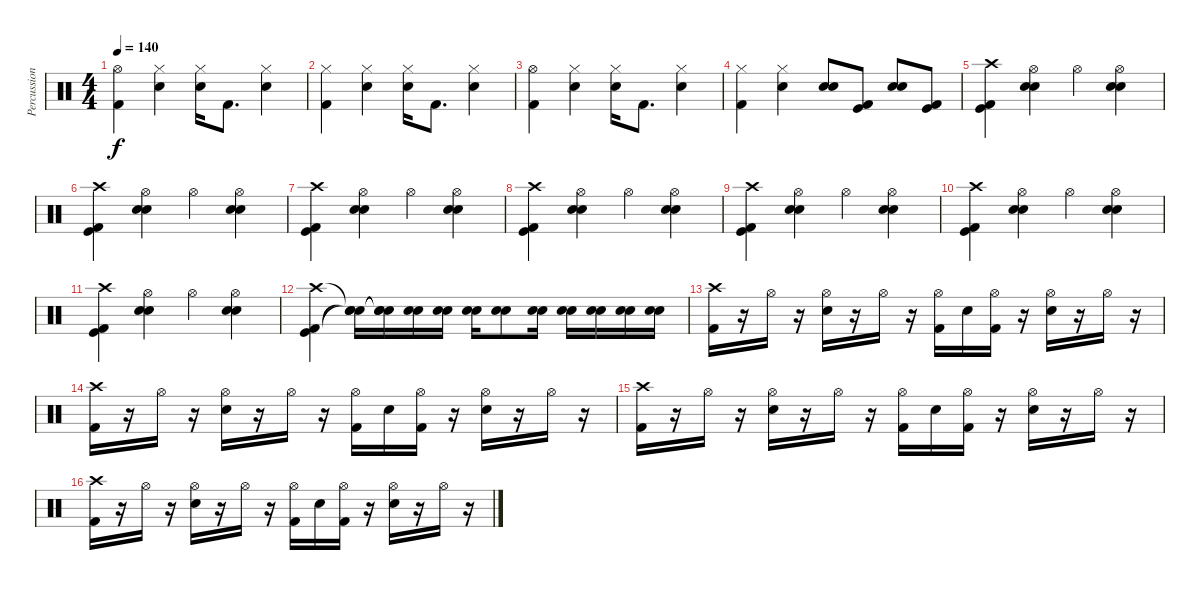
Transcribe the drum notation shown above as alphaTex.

\track ("Percussions" "Percussion") {instrument percussion}
\staff {score}
\articulation defaults
\ts (4 4)
\tempo 140
\clef neutral
\ks c
("Hi-Hat (open)" "Kick (hit) 2").4{dy f} ("Hi-Hat (closed)" "Electric Snare (hit)").4 ("Hi-Hat (closed)" "Electric Snare (hit)").16 "Kick (hit) 2".8{d} ("Hi-Hat (closed)" "Electric Snare (hit)").4 |
("Hi-Hat (closed)" "Kick (hit) 2").4 ("Hi-Hat (closed)" "Electric Snare (hit)").4 ("Hi-Hat (closed)" "Electric Snare (hit)").16 "Kick (hit) 2".8{d} ("Hi-Hat (closed)" "Electric Snare (hit)").4 |
("Hi-Hat (open)" "Kick (hit) 2").4 ("Hi-Hat (closed)" "Electric Snare (hit)").4 ("Hi-Hat (closed)" "Electric Snare (hit)").16 "Kick (hit) 2".8{d} ("Hi-Hat (closed)" "Electric Snare (hit)").4 |
("Hi-Hat (closed)" "Kick (hit) 2").4 ("Hi-Hat (closed)" "Electric Snare (hit)").4 ("Snare (hit) 2" "Electric Snare (hit)").8 ("Kick (hit)" "Kick (hit) 2").8 ("Snare (hit) 2" "Electric Snare (hit)").8 ("Kick (hit)" "Kick (hit) 2").8 |
("Crash high (hit)" "Kick (hit) 2" "Kick (hit)").4 ("Hi-Hat (open)" "Snare (hit) 2" "Electric Snare (hit)").4 "Hi-Hat (open)".4 ("Hi-Hat (open)" "Snare (hit) 2" "Electric Snare (hit)").4 |
("Crash high (hit)" "Kick (hit) 2" "Kick (hit)").4 ("Hi-Hat (open)" "Snare (hit) 2" "Electric Snare (hit)").4 "Hi-Hat (open)".4 ("Hi-Hat (open)" "Snare (hit) 2" "Electric Snare (hit)").4 |
("Crash high (hit)" "Kick (hit) 2" "Kick (hit)").4 ("Hi-Hat (open)" "Snare (hit) 2" "Electric Snare (hit)").4 "Hi-Hat (open)".4 ("Hi-Hat (open)" "Snare (hit) 2" "Electric Snare (hit)").4 |
("Crash high (hit)" "Kick (hit) 2" "Kick (hit)").4 ("Hi-Hat (open)" "Snare (hit) 2" "Electric Snare (hit)").4 "Hi-Hat (open)".4 ("Hi-Hat (open)" "Snare (hit) 2" "Electric Snare (hit)").4 |
("Crash high (hit)" "Kick (hit) 2" "Kick (hit)").4 ("Hi-Hat (open)" "Snare (hit) 2" "Electric Snare (hit)").4 "Hi-Hat (open)".4 ("Hi-Hat (open)" "Snare (hit) 2" "Electric Snare (hit)").4 |
("Crash high (hit)" "Kick (hit) 2" "Kick (hit)").4 ("Hi-Hat (open)" "Snare (hit) 2" "Electric Snare (hit)").4 "Hi-Hat (open)".4 ("Hi-Hat (open)" "Snare (hit) 2" "Electric Snare (hit)").4 |
("Crash high (hit)" "Kick (hit) 2" "Kick (hit)").4 ("Hi-Hat (open)" "Snare (hit) 2" "Electric Snare (hit)").4 "Hi-Hat (open)".4 ("Hi-Hat (open)" "Snare (hit) 2" "Electric Snare (hit)").4 |
("Crash high (hit)" "Kick (hit) 2" "Kick (hit)").4 ("Snare (hit)"{t} "Electric Snare (hit)"{t} "Snare (hit) 2"{t}).16 ("Snare (hit)"{t} "Electric Snare (hit)"{t} "Snare (hit) 2"{t}).16 ("Electric Snare (hit)" "Snare (hit) 2").16 ("Electric Snare (hit)" "Snare (hit) 2").16 ("Electric Snare (hit)" "Snare (hit) 2").16 ("Electric Snare (hit)" "Snare (hit) 2").8 ("Electric Snare (hit)" "Snare (hit) 2").16 ("Electric Snare (hit)" "Snare (hit) 2").16 ("Electric Snare (hit)" "Snare (hit) 2").16 ("Electric Snare (hit)" "Snare (hit) 2").16 ("Electric Snare (hit)" "Snare (hit) 2").16 |
("Crash high (hit)" "Kick (hit) 2").16 r.16 "Hi-Hat (open)".16 r.16 ("Hi-Hat (open)" "Electric Snare (hit)").16 r.16 "Hi-Hat (open)".16 r.16 ("Hi-Hat (open)" "Kick (hit) 2").16 "Electric Snare (hit)".16 ("Hi-Hat (open)" "Kick (hit) 2").16 r.16 ("Hi-Hat (open)" "Electric Snare (hit)").16 r.16 "Hi-Hat (open)".16 r.16 |
("Crash high (hit)" "Kick (hit) 2").16 r.16 "Hi-Hat (open)".16 r.16 ("Hi-Hat (open)" "Electric Snare (hit)").16 r.16 "Hi-Hat (open)".16 r.16 ("Hi-Hat (open)" "Kick (hit) 2").16 "Electric Snare (hit)".16 ("Hi-Hat (open)" "Kick (hit) 2").16 r.16 ("Hi-Hat (open)" "Electric Snare (hit)").16 r.16 "Hi-Hat (open)".16 r.16 |
("Crash high (hit)" "Kick (hit) 2").16 r.16 "Hi-Hat (open)".16 r.16 ("Hi-Hat (open)" "Electric Snare (hit)").16 r.16 "Hi-Hat (open)".16 r.16 ("Hi-Hat (open)" "Kick (hit) 2").16 "Electric Snare (hit)".16 ("Hi-Hat (open)" "Kick (hit) 2").16 r.16 ("Hi-Hat (open)" "Electric Snare (hit)").16 r.16 "Hi-Hat (open)".16 r.16 |
("Crash high (hit)" "Kick (hit) 2").16 r.16 "Hi-Hat (open)".16 r.16 ("Hi-Hat (open)" "Electric Snare (hit)").16 r.16 "Hi-Hat (open)".16 r.16 ("Hi-Hat (open)" "Kick (hit) 2").16 "Electric Snare (hit)".16 ("Hi-Hat (open)" "Kick (hit) 2").16 r.16 ("Hi-Hat (open)" "Electric Snare (hit)").16 r.16 "Hi-Hat (open)".16 r.16
